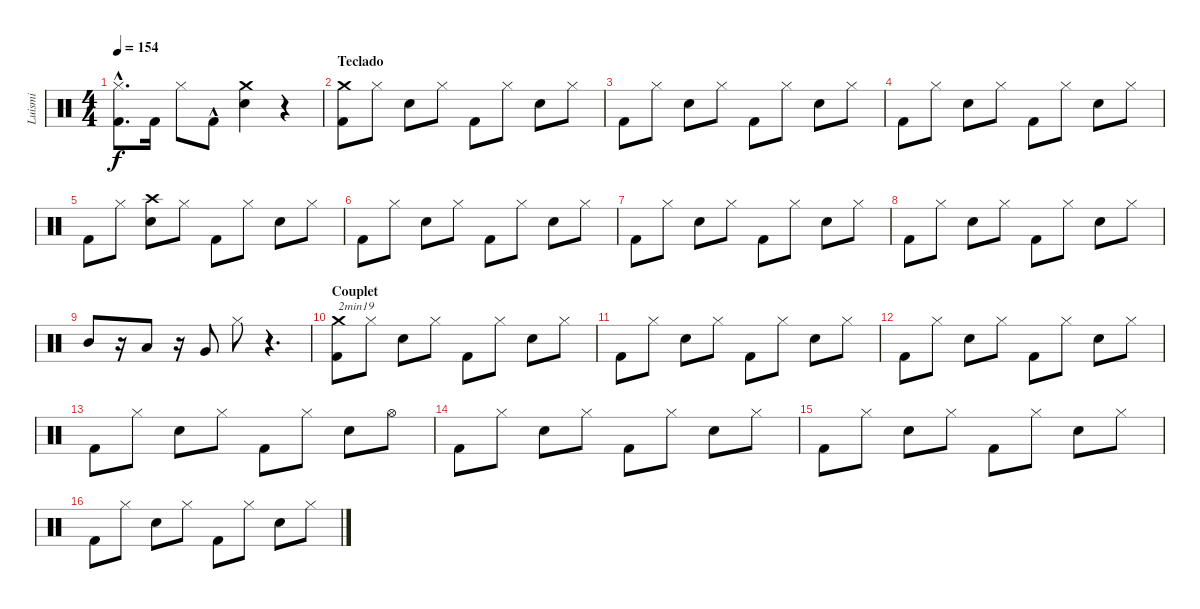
\track ("Luismi" "Luismi") {instrument percussion}
\staff {score}
\articulation defaults
\ts (4 4)
\tempo 154
\clef neutral
\ks c
("Hi-Hat (closed)"{hac} "Kick (hit) 2"{hac}).8{d dy f} "Kick (hit) 2".16 "Hi-Hat (closed)".8 "Kick (hit) 2"{hac}.8 ("Crash medium (hit)" "Snare (hit) 2").4 r.4 |
\section ("" "Teclado")
("Crash medium (hit)" "Kick (hit) 2").8 "Hi-Hat (closed)".8 "Snare (hit) 2".8 "Hi-Hat (closed)".8 "Kick (hit) 2".8 "Hi-Hat (closed)".8 "Snare (hit) 2".8 "Hi-Hat (closed)".8 |
"Kick (hit) 2".8 "Hi-Hat (closed)".8 "Snare (hit) 2".8 "Hi-Hat (closed)".8 "Kick (hit) 2".8 "Hi-Hat (closed)".8 "Snare (hit) 2".8 "Hi-Hat (closed)".8 |
"Kick (hit) 2".8 "Hi-Hat (closed)".8 "Snare (hit) 2".8 "Hi-Hat (closed)".8 "Kick (hit) 2".8 "Hi-Hat (closed)".8 "Snare (hit) 2".8 "Hi-Hat (closed)".8 |
"Kick (hit) 2".8 "Hi-Hat (closed)".8 ("Crash high (hit)" "Snare (hit) 2").8 "Hi-Hat (closed)".8 "Kick (hit) 2".8 "Hi-Hat (closed)".8 "Snare (hit) 2".8 "Hi-Hat (closed)".8 |
"Kick (hit) 2".8 "Hi-Hat (closed)".8 "Snare (hit) 2".8 "Hi-Hat (closed)".8 "Kick (hit) 2".8 "Hi-Hat (closed)".8 "Snare (hit) 2".8 "Hi-Hat (closed)".8 |
"Kick (hit) 2".8 "Hi-Hat (closed)".8 "Snare (hit) 2".8 "Hi-Hat (closed)".8 "Kick (hit) 2".8 "Hi-Hat (closed)".8 "Snare (hit) 2".8 "Hi-Hat (closed)".8 |
"Kick (hit) 2".8 "Hi-Hat (closed)".8 "Snare (hit) 2".8 "Hi-Hat (closed)".8 "Kick (hit) 2".8 "Hi-Hat (closed)".8 "Snare (hit) 2".8 "Hi-Hat (closed)".8 |
"Mid Tom (hit)".8 r.16 "Low Tom (hit)".8 r.16 "Very Low Tom (hit)".8 "Hi-Hat (closed)".8 r.4{d} |
\section ("" "Couplet")
("Crash medium (hit)" "Kick (hit) 2").8{txt "2min19"} "Hi-Hat (closed)".8 "Snare (hit) 2".8 "Hi-Hat (closed)".8 "Kick (hit) 2".8 "Hi-Hat (closed)".8 "Snare (hit) 2".8 "Hi-Hat (closed)".8 |
"Kick (hit) 2".8 "Hi-Hat (closed)".8 "Snare (hit) 2".8 "Hi-Hat (closed)".8 "Kick (hit) 2".8 "Hi-Hat (closed)".8 "Snare (hit) 2".8 "Hi-Hat (closed)".8 |
"Kick (hit) 2".8 "Hi-Hat (closed)".8 "Snare (hit) 2".8 "Hi-Hat (closed)".8 "Kick (hit) 2".8 "Hi-Hat (closed)".8 "Snare (hit) 2".8 "Hi-Hat (closed)".8 |
"Kick (hit) 2".8 "Hi-Hat (closed)".8 "Snare (hit) 2".8 "Hi-Hat (closed)".8 "Kick (hit) 2".8 "Hi-Hat (closed)".8 "Snare (hit) 2".8 "Hi-Hat (open)".8 |
"Kick (hit) 2".8 "Hi-Hat (closed)".8 "Snare (hit) 2".8 "Hi-Hat (closed)".8 "Kick (hit) 2".8 "Hi-Hat (closed)".8 "Snare (hit) 2".8 "Hi-Hat (closed)".8 |
"Kick (hit) 2".8 "Hi-Hat (closed)".8 "Snare (hit) 2".8 "Hi-Hat (closed)".8 "Kick (hit) 2".8 "Hi-Hat (closed)".8 "Snare (hit) 2".8 "Hi-Hat (closed)".8 |
"Kick (hit) 2".8 "Hi-Hat (closed)".8 "Snare (hit) 2".8 "Hi-Hat (closed)".8 "Kick (hit) 2".8 "Hi-Hat (closed)".8 "Snare (hit) 2".8 "Hi-Hat (closed)".8
